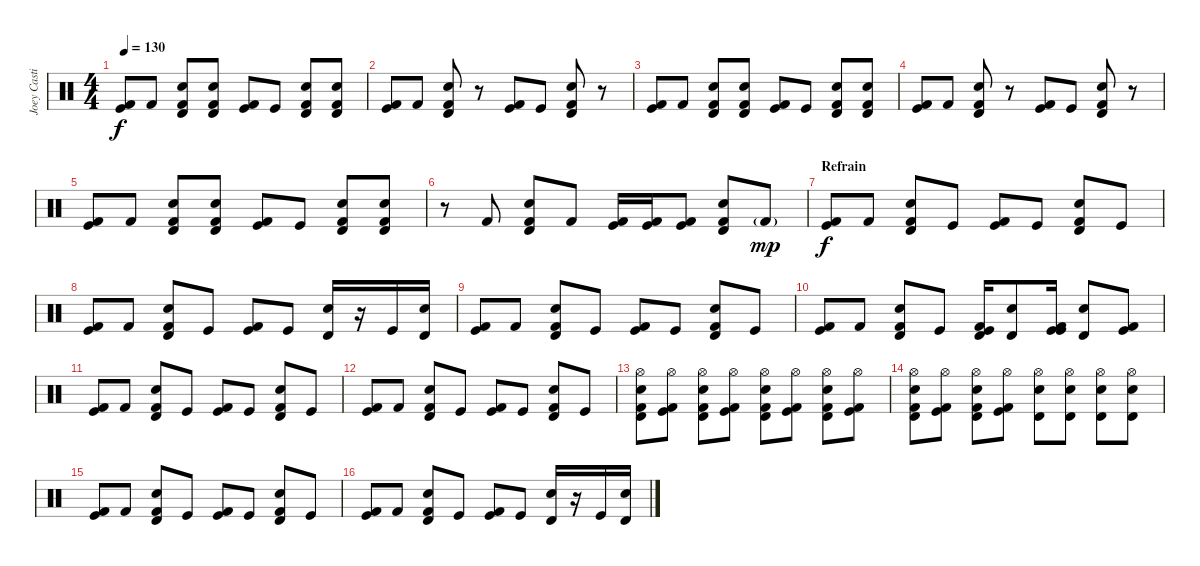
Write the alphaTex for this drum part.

\track ("Joey Castillo  (Batterie)" "Joey Casti") {instrument percussion}
\staff {score}
\articulation defaults
\ts (4 4)
\tempo 130
\clef neutral
\ks c
("Kick (hit) 2" "Kick (hit)").8{dy f} "Kick (hit) 2".8 ("Kick (hit) 2" "Timbale high (hit)" "Electric Snare (hit)").8 ("Kick (hit) 2" "Timbale high (hit)" "Electric Snare (hit)").8 ("Kick (hit) 2" "Kick (hit)").8 "Kick (hit)".8 ("Kick (hit) 2" "Timbale high (hit)" "Electric Snare (hit)").8 ("Kick (hit) 2" "Timbale high (hit)" "Electric Snare (hit)").8 |
("Kick (hit) 2" "Kick (hit)").8 "Kick (hit) 2".8 ("Kick (hit) 2" "Timbale high (hit)" "Electric Snare (hit)").8 r.8 ("Kick (hit) 2" "Kick (hit)").8 "Kick (hit)".8 ("Kick (hit) 2" "Timbale high (hit)" "Electric Snare (hit)").8 r.8 |
("Kick (hit) 2" "Kick (hit)").8 "Kick (hit) 2".8 ("Kick (hit) 2" "Timbale high (hit)" "Electric Snare (hit)").8 ("Kick (hit) 2" "Timbale high (hit)" "Electric Snare (hit)").8 ("Kick (hit) 2" "Kick (hit)").8 "Kick (hit)".8 ("Kick (hit) 2" "Timbale high (hit)" "Electric Snare (hit)").8 ("Kick (hit) 2" "Timbale high (hit)" "Electric Snare (hit)").8 |
("Kick (hit) 2" "Kick (hit)").8 "Kick (hit) 2".8 ("Kick (hit) 2" "Timbale high (hit)" "Electric Snare (hit)").8 r.8 ("Kick (hit) 2" "Kick (hit)").8 "Kick (hit)".8 ("Kick (hit) 2" "Timbale high (hit)" "Electric Snare (hit)").8 r.8 |
("Kick (hit) 2" "Kick (hit)").8 "Kick (hit) 2".8 ("Kick (hit) 2" "Timbale high (hit)" "Electric Snare (hit)").8 ("Kick (hit) 2" "Timbale high (hit)" "Electric Snare (hit)").8 ("Kick (hit) 2" "Kick (hit)").8 "Kick (hit)".8 ("Kick (hit) 2" "Timbale high (hit)" "Electric Snare (hit)").8 ("Kick (hit) 2" "Timbale high (hit)" "Electric Snare (hit)").8 |
r.8 "Kick (hit) 2".8{volume 14} ("Kick (hit) 2" "Timbale high (hit)" "Electric Snare (hit)").8 "Kick (hit) 2".8 ("Kick (hit)" "Kick (hit) 2").16 ("Kick (hit)" "Kick (hit) 2").16 ("Kick (hit)" "Kick (hit) 2").8 ("Kick (hit) 2" "Timbale high (hit)" "Electric Snare (hit)").8 "Kick (hit) 2"{g}.8{dy mp} |
\section ("" "Refrain")
("Kick (hit) 2" "Kick (hit)").8{dy f} "Kick (hit) 2".8 ("Kick (hit) 2" "Timbale high (hit)" "Electric Snare (hit)").8 "Kick (hit)".8 ("Kick (hit) 2" "Kick (hit)").8 "Kick (hit)".8 ("Kick (hit) 2" "Timbale high (hit)" "Electric Snare (hit)").8 "Kick (hit)".8 |
("Kick (hit) 2" "Kick (hit)").8 "Kick (hit) 2".8 ("Kick (hit) 2" "Timbale high (hit)" "Electric Snare (hit)").8 "Kick (hit)".8 ("Kick (hit) 2" "Kick (hit)").8 "Kick (hit)".8 ("Timbale high (hit)" "Electric Snare (hit)").16 r.16 "Kick (hit)".16 ("Timbale high (hit)" "Electric Snare (hit)").16 |
("Kick (hit) 2" "Kick (hit)").8 "Kick (hit) 2".8 ("Kick (hit) 2" "Timbale high (hit)" "Electric Snare (hit)").8 "Kick (hit)".8 ("Kick (hit) 2" "Kick (hit)").8 "Kick (hit)".8 ("Kick (hit) 2" "Timbale high (hit)" "Electric Snare (hit)").8 "Kick (hit)".8 |
("Kick (hit) 2" "Kick (hit)").8 "Kick (hit) 2".8 ("Kick (hit) 2" "Timbale high (hit)" "Electric Snare (hit)").8 "Kick (hit)".8 ("Timbale high (hit)" "Kick (hit)" "Kick (hit) 2").16 ("Timbale high (hit)" "Electric Snare (hit)").8 ("Kick (hit)" "Kick (hit)" "Kick (hit) 2").16 ("Timbale high (hit)" "Electric Snare (hit)").8 ("Kick (hit) 2" "Kick (hit)").8 |
("Kick (hit) 2" "Kick (hit)").8 "Kick (hit) 2".8 ("Kick (hit) 2" "Timbale high (hit)" "Electric Snare (hit)").8 "Kick (hit)".8 ("Kick (hit) 2" "Kick (hit)").8 "Kick (hit)".8 ("Kick (hit) 2" "Timbale high (hit)" "Electric Snare (hit)").8 "Kick (hit)".8 |
("Kick (hit) 2" "Kick (hit)").8 "Kick (hit) 2".8 ("Kick (hit) 2" "Timbale high (hit)" "Electric Snare (hit)").8 "Kick (hit)".8 ("Kick (hit) 2" "Kick (hit)").8 "Kick (hit)".8 ("Kick (hit) 2" "Timbale high (hit)" "Electric Snare (hit)").8 "Kick (hit)".8 |
("Timbale high (hit)" "Electric Snare (hit)" "Kick (hit) 2" "Hi-Hat (open)").8 ("Kick (hit)" "Kick (hit) 2" "Hi-Hat (open)").8 ("Timbale high (hit)" "Electric Snare (hit)" "Kick (hit) 2" "Hi-Hat (open)").8 ("Kick (hit)" "Kick (hit) 2" "Hi-Hat (open)").8 ("Timbale high (hit)" "Electric Snare (hit)" "Kick (hit) 2" "Hi-Hat (open)").8 ("Kick (hit)" "Kick (hit) 2" "Hi-Hat (open)").8 ("Timbale high (hit)" "Electric Snare (hit)" "Kick (hit) 2" "Hi-Hat (open)").8 ("Kick (hit)" "Kick (hit) 2" "Hi-Hat (open)").8 |
("Timbale high (hit)" "Electric Snare (hit)" "Kick (hit) 2" "Hi-Hat (open)").8 ("Kick (hit)" "Kick (hit) 2" "Hi-Hat (open)").8 ("Timbale high (hit)" "Electric Snare (hit)" "Kick (hit) 2" "Hi-Hat (open)").8 ("Kick (hit)" "Kick (hit) 2" "Hi-Hat (open)").8 ("Timbale high (hit)" "Electric Snare (hit)" "Hi-Hat (open)").8 ("Timbale high (hit)" "Electric Snare (hit)" "Hi-Hat (open)").8 ("Timbale high (hit)" "Electric Snare (hit)" "Hi-Hat (open)").8 ("Timbale high (hit)" "Electric Snare (hit)" "Hi-Hat (open)").8 |
("Kick (hit) 2" "Kick (hit)").8 "Kick (hit) 2".8 ("Kick (hit) 2" "Timbale high (hit)" "Electric Snare (hit)").8 "Kick (hit)".8 ("Kick (hit) 2" "Kick (hit)").8 "Kick (hit)".8 ("Kick (hit) 2" "Timbale high (hit)" "Electric Snare (hit)").8 "Kick (hit)".8 |
("Kick (hit) 2" "Kick (hit)").8 "Kick (hit) 2".8 ("Kick (hit) 2" "Timbale high (hit)" "Electric Snare (hit)").8 "Kick (hit)".8 ("Kick (hit) 2" "Kick (hit)").8 "Kick (hit)".8 ("Timbale high (hit)" "Electric Snare (hit)").16 r.16 "Kick (hit)".16 ("Timbale high (hit)" "Electric Snare (hit)").16
